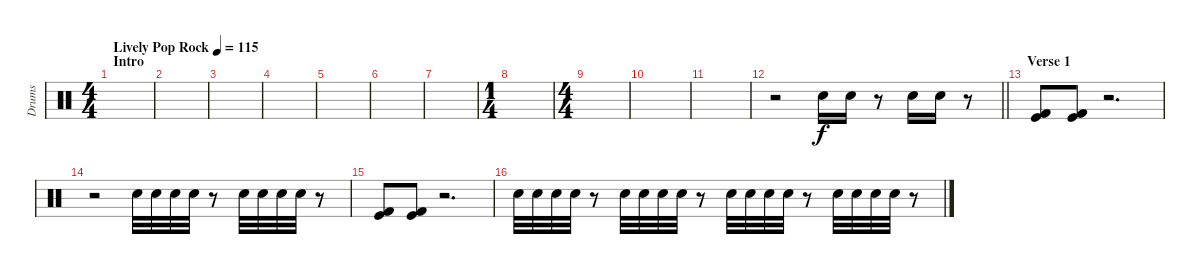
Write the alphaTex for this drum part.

\track ("Drums" "Drums") {instrument percussion}
\staff {score}
\articulation defaults
\ts (4 4)
\section ("" "Intro")
\tempo (115 "Lively Pop Rock")
\clef neutral
\ks c
|
|
|
|
|
|
|
\ts (1 4)
|
\ts (4 4)
|
|
|
\barLineRight lightlight
r.2 "Snare (hit) 2".16 "Snare (hit) 2".16 r.8 "Snare (hit) 2".16 "Snare (hit) 2".16 r.8 |
\section ("" "Verse 1")
("Kick (hit)" "Kick (hit) 2").8{bd 60} ("Kick (hit)" "Kick (hit) 2").8{bd 60} r.2{d} |
r.2 "Snare (hit) 2".32 "Snare (hit) 2".32 "Snare (hit) 2".32 "Snare (hit) 2".32 r.8 "Snare (hit) 2".32 "Snare (hit) 2".32 "Snare (hit) 2".32 "Snare (hit) 2".32 r.8 |
("Kick (hit)" "Kick (hit) 2").8{bd 60} ("Kick (hit)" "Kick (hit) 2").8{bd 60} r.2{d} |
"Snare (hit) 2".32 "Snare (hit) 2".32 "Snare (hit) 2".32 "Snare (hit) 2".32 r.8 "Snare (hit) 2".32 "Snare (hit) 2".32 "Snare (hit) 2".32 "Snare (hit) 2".32 r.8 "Snare (hit) 2".32 "Snare (hit) 2".32 "Snare (hit) 2".32 "Snare (hit) 2".32 r.8 "Snare (hit) 2".32 "Snare (hit) 2".32 "Snare (hit) 2".32 "Snare (hit) 2".32 r.8
